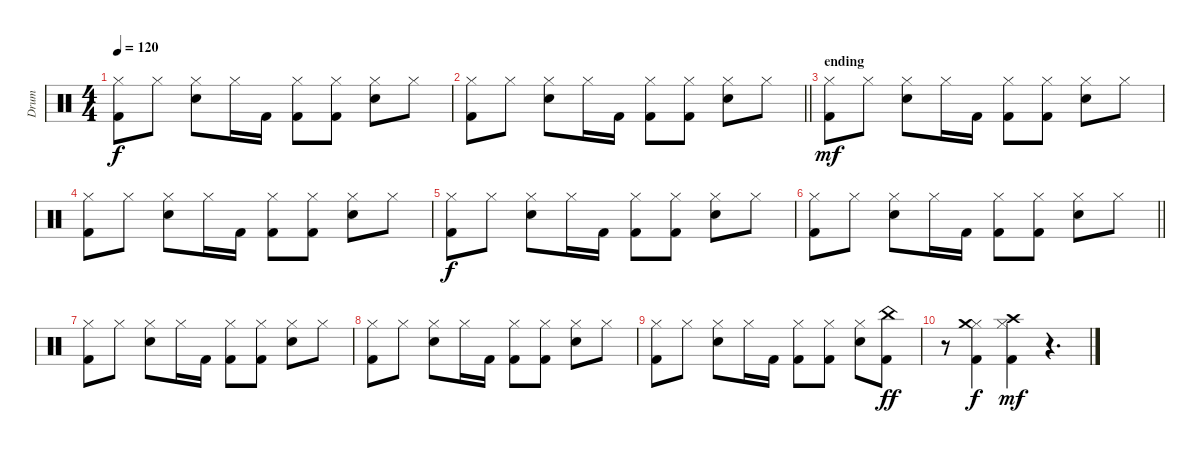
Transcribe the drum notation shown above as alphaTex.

\track ("Drum" "Drum") {instrument percussion}
\staff {score}
\articulation defaults
\ts (4 4)
\tempo 120
\clef neutral
\ks c
("Kick (hit) 2" "Hi-Hat (closed)").8{dy f} "Hi-Hat (closed)".8 ("Electric Snare (hit)" "Hi-Hat (closed)").8 "Hi-Hat (closed)".16 "Kick (hit) 2".16 ("Kick (hit) 2" "Hi-Hat (closed)").8 ("Kick (hit) 2" "Hi-Hat (closed)").8 ("Electric Snare (hit)" "Hi-Hat (closed)").8 "Hi-Hat (closed)".8 |
\barLineRight lightlight
("Kick (hit) 2" "Hi-Hat (closed)").8 "Hi-Hat (closed)".8 ("Electric Snare (hit)" "Hi-Hat (closed)").8 "Hi-Hat (closed)".16 "Kick (hit) 2".16 ("Kick (hit) 2" "Hi-Hat (closed)").8 ("Kick (hit) 2" "Hi-Hat (closed)").8 ("Electric Snare (hit)" "Hi-Hat (closed)").8 "Hi-Hat (closed)".8 |
\section ("" "ending")
("Kick (hit) 2" "Hi-Hat (closed)").8{dy mf} "Hi-Hat (closed)".8 ("Electric Snare (hit)" "Hi-Hat (closed)").8 "Hi-Hat (closed)".16 "Kick (hit) 2".16 ("Kick (hit) 2" "Hi-Hat (closed)").8 ("Kick (hit) 2" "Hi-Hat (closed)").8 ("Electric Snare (hit)" "Hi-Hat (closed)").8 "Hi-Hat (closed)".8 |
("Kick (hit) 2" "Hi-Hat (closed)").8 "Hi-Hat (closed)".8 ("Electric Snare (hit)" "Hi-Hat (closed)").8 "Hi-Hat (closed)".16 "Kick (hit) 2".16 ("Kick (hit) 2" "Hi-Hat (closed)").8 ("Kick (hit) 2" "Hi-Hat (closed)").8 ("Electric Snare (hit)" "Hi-Hat (closed)").8 "Hi-Hat (closed)".8 |
("Kick (hit) 2" "Hi-Hat (closed)").8{dy f} "Hi-Hat (closed)".8 ("Electric Snare (hit)" "Hi-Hat (closed)").8 "Hi-Hat (closed)".16 "Kick (hit) 2".16 ("Kick (hit) 2" "Hi-Hat (closed)").8 ("Kick (hit) 2" "Hi-Hat (closed)").8 ("Electric Snare (hit)" "Hi-Hat (closed)").8 "Hi-Hat (closed)".8 |
\barLineRight lightlight
("Kick (hit) 2" "Hi-Hat (closed)").8 "Hi-Hat (closed)".8 ("Electric Snare (hit)" "Hi-Hat (closed)").8 "Hi-Hat (closed)".16 "Kick (hit) 2".16 ("Kick (hit) 2" "Hi-Hat (closed)").8 ("Kick (hit) 2" "Hi-Hat (closed)").8 ("Electric Snare (hit)" "Hi-Hat (closed)").8 "Hi-Hat (closed)".8 |
("Kick (hit) 2" "Hi-Hat (closed)").8 "Hi-Hat (closed)".8 ("Electric Snare (hit)" "Hi-Hat (closed)").8 "Hi-Hat (closed)".16 "Kick (hit) 2".16 ("Kick (hit) 2" "Hi-Hat (closed)").8 ("Kick (hit) 2" "Hi-Hat (closed)").8 ("Electric Snare (hit)" "Hi-Hat (closed)").8 "Hi-Hat (closed)".8 |
("Kick (hit) 2" "Hi-Hat (closed)").8 "Hi-Hat (closed)".8 ("Electric Snare (hit)" "Hi-Hat (closed)").8 "Hi-Hat (closed)".16 "Kick (hit) 2".16 ("Kick (hit) 2" "Hi-Hat (closed)").8 ("Kick (hit) 2" "Hi-Hat (closed)").8 ("Electric Snare (hit)" "Hi-Hat (closed)").8 "Hi-Hat (closed)".8 |
("Kick (hit) 2" "Hi-Hat (closed)").8 "Hi-Hat (closed)".8 ("Electric Snare (hit)" "Hi-Hat (closed)").8 "Hi-Hat (closed)".16 "Kick (hit) 2".16 ("Kick (hit) 2" "Hi-Hat (closed)").8 ("Kick (hit) 2" "Hi-Hat (closed)").8 ("Electric Snare (hit)" "Hi-Hat (closed)").8 ("Kick (hit) 2" "China (hit)").8{dy ff} |
r.8 ("Kick (hit) 2" "Hi-Hat (closed)" "Crash medium (hit)").4{dy f} ("Kick (hit) 2" "Hi-Hat (closed)" "Crash high (hit)").4{dy mf} r.4{d}
